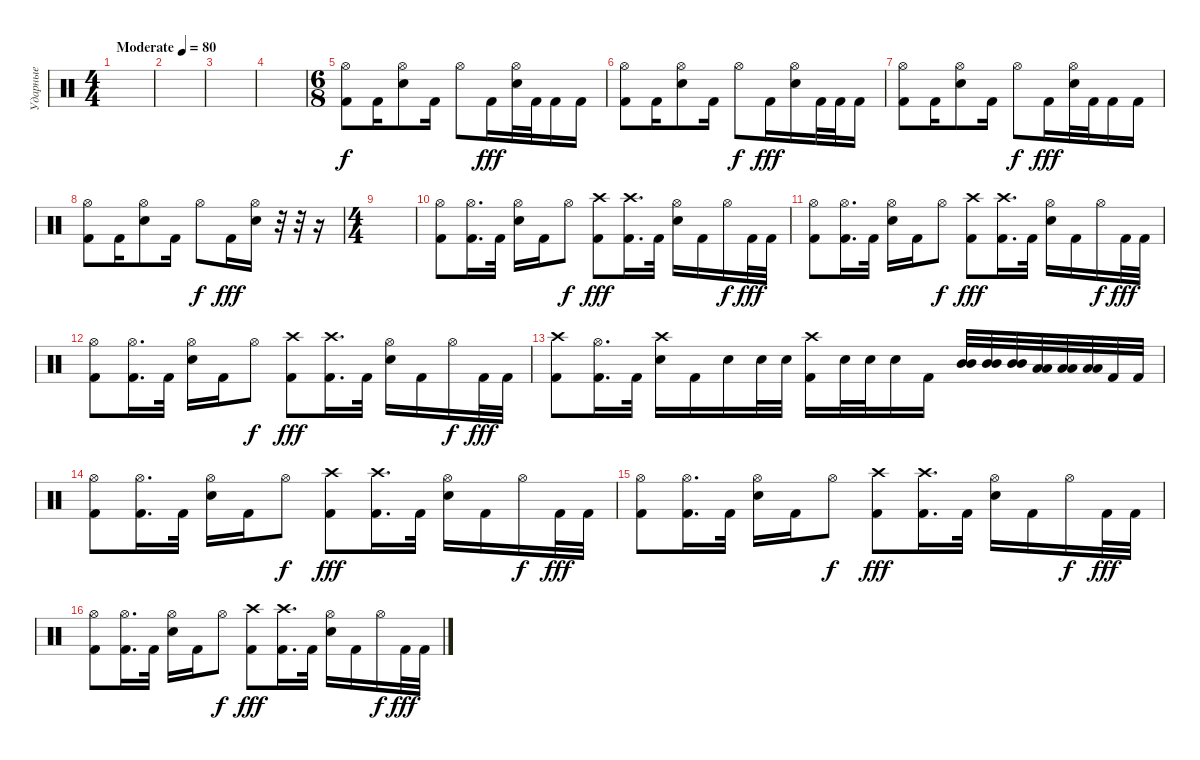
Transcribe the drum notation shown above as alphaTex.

\track ("Ударные" "Ударные") {instrument percussion}
\staff {score}
\articulation defaults
\ts (4 4)
\tempo (80 "Moderate")
\clef neutral
\ks c
|
|
|
|
\ts (6 8)
("Hi-Hat (open)" "Kick (hit) 2").8 "Kick (hit) 2".16 ("Hi-Hat (open)" "Electric Snare (hit)").8 "Kick (hit) 2".16 "Hi-Hat (open)".8{dy f} "Kick (hit) 2".16{dy fff} ("Hi-Hat (open)" "Electric Snare (hit)").32 "Kick (hit) 2".32 "Kick (hit) 2".16 "Kick (hit) 2".16 |
("Hi-Hat (open)" "Kick (hit) 2").8 "Kick (hit) 2".16 ("Hi-Hat (open)" "Electric Snare (hit)").8 "Kick (hit) 2".16 "Hi-Hat (open)".8{dy f} "Kick (hit) 2".16{dy fff} ("Hi-Hat (open)" "Electric Snare (hit)").16 "Kick (hit) 2".32 "Kick (hit) 2".32 "Kick (hit) 2".16 |
("Hi-Hat (open)" "Kick (hit) 2").8 "Kick (hit) 2".16 ("Hi-Hat (open)" "Electric Snare (hit)").8 "Kick (hit) 2".16 "Hi-Hat (open)".8{dy f} "Kick (hit) 2".16{dy fff} ("Hi-Hat (open)" "Electric Snare (hit)").32 "Kick (hit) 2".32 "Kick (hit) 2".16 "Kick (hit) 2".16 |
("Hi-Hat (open)" "Kick (hit) 2").8 "Kick (hit) 2".16 ("Hi-Hat (open)" "Electric Snare (hit)").8 "Kick (hit) 2".16 "Hi-Hat (open)".8{dy f} "Kick (hit) 2".16{dy fff} ("Hi-Hat (open)" "Electric Snare (hit)").16 r.32 r.32 r.16 |
\ts (4 4)
|
("Hi-Hat (open)" "Kick (hit) 2").8 ("Hi-Hat (open)" "Kick (hit) 2").16{d} "Kick (hit) 2".32 ("Hi-Hat (open)" "Electric Snare (hit)").16 "Kick (hit) 2".16 "Hi-Hat (open)".8{dy f} ("Crash high (hit)" "Kick (hit) 2").8{dy fff} ("Crash high (hit)" "Kick (hit) 2").16{d} "Kick (hit) 2".32 ("Hi-Hat (open)" "Electric Snare (hit)").16 "Kick (hit) 2".16 "Hi-Hat (open)".16{dy f} "Kick (hit) 2".32{dy fff} "Kick (hit) 2".32 |
("Hi-Hat (open)" "Kick (hit) 2").8 ("Hi-Hat (open)" "Kick (hit) 2").16{d} "Kick (hit) 2".32 ("Hi-Hat (open)" "Electric Snare (hit)").16 "Kick (hit) 2".16 "Hi-Hat (open)".8{dy f} ("Crash high (hit)" "Kick (hit) 2").8{dy fff} ("Crash high (hit)" "Kick (hit) 2").16{d} "Kick (hit) 2".32 ("Hi-Hat (open)" "Electric Snare (hit)").16 "Kick (hit) 2".16 "Hi-Hat (open)".16{dy f} "Kick (hit) 2".32{dy fff} "Kick (hit) 2".32 |
("Hi-Hat (open)" "Kick (hit) 2").8 ("Hi-Hat (open)" "Kick (hit) 2").16{d} "Kick (hit) 2".32 ("Hi-Hat (open)" "Electric Snare (hit)").16 "Kick (hit) 2".16 "Hi-Hat (open)".8{dy f} ("Crash high (hit)" "Kick (hit) 2").8{dy fff} ("Crash high (hit)" "Kick (hit) 2").16{d} "Kick (hit) 2".32 ("Hi-Hat (open)" "Electric Snare (hit)").16 "Kick (hit) 2".16 "Hi-Hat (open)".16{dy f} "Kick (hit) 2".32{dy fff} "Kick (hit) 2".32 |
("Crash high (hit)" "Kick (hit) 2").8 ("Hi-Hat (open)" "Kick (hit) 2").16{d} "Kick (hit) 2".32 ("Crash high (hit)" "Electric Snare (hit)").16 "Kick (hit) 2".16 "Electric Snare (hit)".16 "Electric Snare (hit)".32 "Electric Snare (hit)".32 ("Crash high (hit)" "Kick (hit) 2").16 "Electric Snare (hit)".32 "Electric Snare (hit)".32 "Electric Snare (hit)".16 "Kick (hit) 2".16 ("Mid Tom (hit)" "Mid Tom (hit)").32 ("Mid Tom (hit)" "Mid Tom (hit)").32 ("Mid Tom (hit)" "Mid Tom (hit)").32 ("Low Tom (hit)" "Low Tom (hit)").32 ("Low Tom (hit)" "Low Tom (hit)").32 ("Low Tom (hit)" "Low Tom (hit)").32 "Kick (hit) 2".32 "Kick (hit) 2".32 |
("Hi-Hat (open)" "Kick (hit) 2").8 ("Hi-Hat (open)" "Kick (hit) 2").16{d} "Kick (hit) 2".32 ("Hi-Hat (open)" "Electric Snare (hit)").16 "Kick (hit) 2".16 "Hi-Hat (open)".8{dy f} ("Crash high (hit)" "Kick (hit) 2").8{dy fff} ("Crash high (hit)" "Kick (hit) 2").16{d} "Kick (hit) 2".32 ("Hi-Hat (open)" "Electric Snare (hit)").16 "Kick (hit) 2".16 "Hi-Hat (open)".16{dy f} "Kick (hit) 2".32{dy fff} "Kick (hit) 2".32 |
("Hi-Hat (open)" "Kick (hit) 2").8 ("Hi-Hat (open)" "Kick (hit) 2").16{d} "Kick (hit) 2".32 ("Hi-Hat (open)" "Electric Snare (hit)").16 "Kick (hit) 2".16 "Hi-Hat (open)".8{dy f} ("Crash high (hit)" "Kick (hit) 2").8{dy fff} ("Crash high (hit)" "Kick (hit) 2").16{d} "Kick (hit) 2".32 ("Hi-Hat (open)" "Electric Snare (hit)").16 "Kick (hit) 2".16 "Hi-Hat (open)".16{dy f} "Kick (hit) 2".32{dy fff} "Kick (hit) 2".32 |
("Hi-Hat (open)" "Kick (hit) 2").8 ("Hi-Hat (open)" "Kick (hit) 2").16{d} "Kick (hit) 2".32 ("Hi-Hat (open)" "Electric Snare (hit)").16 "Kick (hit) 2".16 "Hi-Hat (open)".8{dy f} ("Crash high (hit)" "Kick (hit) 2").8{dy fff} ("Crash high (hit)" "Kick (hit) 2").16{d} "Kick (hit) 2".32 ("Hi-Hat (open)" "Electric Snare (hit)").16 "Kick (hit) 2".16 "Hi-Hat (open)".16{dy f} "Kick (hit) 2".32{dy fff} "Kick (hit) 2".32
